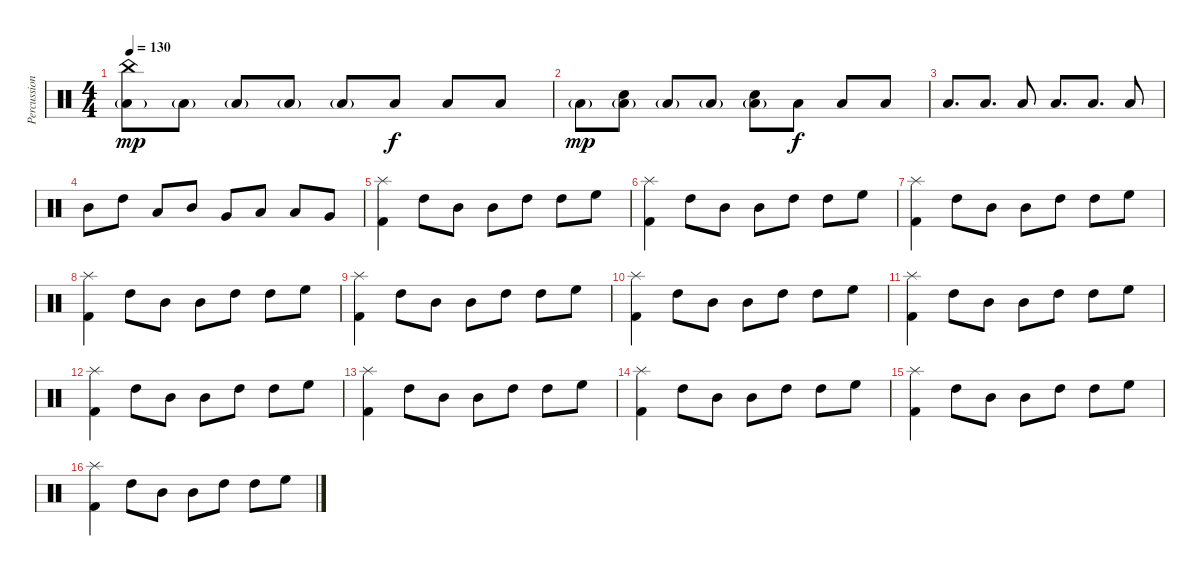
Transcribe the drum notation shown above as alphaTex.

\track ("Percussion" "Percussion") {instrument percussion}
\staff {score}
\articulation defaults
\ts (4 4)
\tempo 130
\clef neutral
\ks c
("China (hit)" "Low Tom (hit)"{g}).8{dy mp} "Low Tom (hit)"{g}.8 "Low Tom (hit)"{g}.8 "Low Tom (hit)"{g}.8 "Low Tom (hit)"{g}.8 "Low Tom (hit)".8{dy f} "Low Tom (hit)".8 "Low Tom (hit)".8 |
"Low Tom (hit)"{g}.8{dy mp} ("Electric Snare (hit)" "Low Tom (hit)"{g}).8 "Low Tom (hit)"{g}.8 "Low Tom (hit)"{g}.8 ("Electric Snare (hit)" "Low Tom (hit)"{g}).8 "Low Tom (hit)".8{dy f} "Low Tom (hit)".8 "Low Tom (hit)".8 |
"Low Tom (hit)".8{d} "Low Tom (hit)".8{d} "Low Tom (hit)".8 "Low Tom (hit)".8{d} "Low Tom (hit)".8{d} "Low Tom (hit)".8 |
"Mid Tom (hit)".8 "High Tom (hit)".8 "Low Tom (hit)".8 "Mid Tom (hit)".8 "Very Low Tom (hit)".8 "Low Tom (hit)".8 "Low Tom (hit)".8 "Very Low Tom (hit)".8 |
("Splash (hit)" "Kick (hit) 2").4 "High Tom (hit)".8 "Mid Tom (hit)".8 "Mid Tom (hit)".8 "High Tom (hit)".8 "High Tom (hit)".8 "High Floor Tom (hit)".8 |
("Splash (hit)" "Kick (hit) 2").4 "High Tom (hit)".8 "Mid Tom (hit)".8 "Mid Tom (hit)".8 "High Tom (hit)".8 "High Tom (hit)".8 "High Floor Tom (hit)".8 |
("Splash (hit)" "Kick (hit) 2").4 "High Tom (hit)".8 "Mid Tom (hit)".8 "Mid Tom (hit)".8 "High Tom (hit)".8 "High Tom (hit)".8 "High Floor Tom (hit)".8 |
("Splash (hit)" "Kick (hit) 2").4 "High Tom (hit)".8 "Mid Tom (hit)".8 "Mid Tom (hit)".8 "High Tom (hit)".8 "High Tom (hit)".8 "High Floor Tom (hit)".8 |
("Splash (hit)" "Kick (hit) 2").4 "High Tom (hit)".8 "Mid Tom (hit)".8 "Mid Tom (hit)".8 "High Tom (hit)".8 "High Tom (hit)".8 "High Floor Tom (hit)".8 |
("Splash (hit)" "Kick (hit) 2").4 "High Tom (hit)".8 "Mid Tom (hit)".8 "Mid Tom (hit)".8 "High Tom (hit)".8 "High Tom (hit)".8 "High Floor Tom (hit)".8 |
("Splash (hit)" "Kick (hit) 2").4 "High Tom (hit)".8 "Mid Tom (hit)".8 "Mid Tom (hit)".8 "High Tom (hit)".8 "High Tom (hit)".8 "High Floor Tom (hit)".8 |
("Splash (hit)" "Kick (hit) 2").4 "High Tom (hit)".8 "Mid Tom (hit)".8 "Mid Tom (hit)".8 "High Tom (hit)".8 "High Tom (hit)".8 "High Floor Tom (hit)".8 |
("Splash (hit)" "Kick (hit) 2").4 "High Tom (hit)".8 "Mid Tom (hit)".8 "Mid Tom (hit)".8 "High Tom (hit)".8 "High Tom (hit)".8 "High Floor Tom (hit)".8 |
("Splash (hit)" "Kick (hit) 2").4 "High Tom (hit)".8 "Mid Tom (hit)".8 "Mid Tom (hit)".8 "High Tom (hit)".8 "High Tom (hit)".8 "High Floor Tom (hit)".8 |
("Splash (hit)" "Kick (hit) 2").4 "High Tom (hit)".8 "Mid Tom (hit)".8 "Mid Tom (hit)".8 "High Tom (hit)".8 "High Tom (hit)".8 "High Floor Tom (hit)".8 |
("Splash (hit)" "Kick (hit) 2").4 "High Tom (hit)".8 "Mid Tom (hit)".8 "Mid Tom (hit)".8 "High Tom (hit)".8 "High Tom (hit)".8 "High Floor Tom (hit)".8
